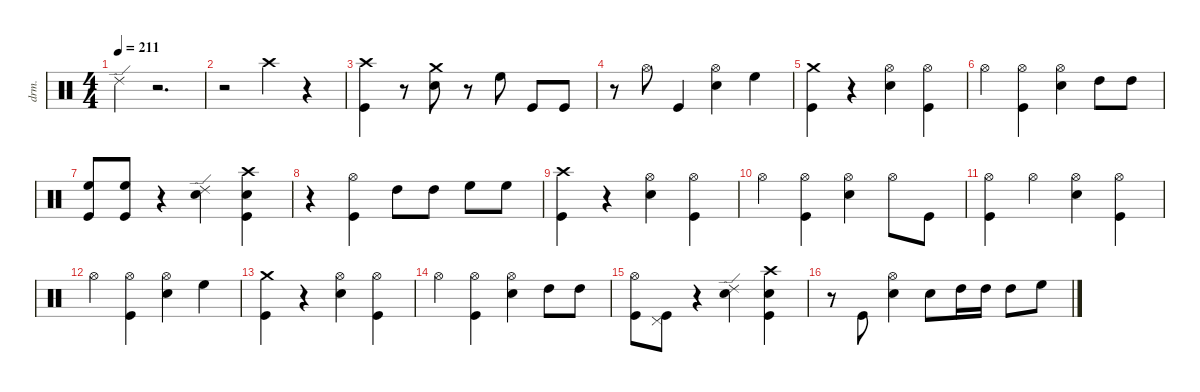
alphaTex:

\defaultSystemsLayout 4
\hideDynamics
\bracketExtendMode nobrackets
\track ("Drums" "drm.") {instrument percussion}
\staff {score}
\articulation defaults
\ts (4 4)
\tempo 211
\clef neutral
\ks c "Ride (edge) 2".4{dy ff beam Down}
r.2{d beam Down} |
r.2{beam Down} "Crash high (hit)"{acc #}.4{dy fff beam Down} r.4{beam Down} |
("Kick (hit)" "Crash high (hit)"{acc #}).4{beam Down} r.8{beam Down} ("Snare (hit) 2" "Crash medium (hit)").8{dy ff beam Down} r.8{beam Down} "High Floor Tom (hit)".8{beam Down} "Kick (hit)".8{dy mf beam Up} "Kick (hit)".8{dy fff beam Up} |
r.8{beam Down} "Hi-Hat (open)"{acc #}.8{dy ff beam Down} "Kick (hit)".4{beam Up} ("Snare (hit) 2" "Hi-Hat (open)"{acc #}).4{beam Down} "High Floor Tom (hit)".4{beam Down} |
("Kick (hit)" "Crash medium (hit)").4{dy fff beam Down} r.4{beam Down} ("Snare (hit) 2" "Hi-Hat (open)"{acc #}).4{dy ff beam Down} ("Kick (hit)" "Hi-Hat (open)"{acc #}).4{beam Down} |
"Hi-Hat (open)"{acc #}.4{dy fff beam Down} ("Kick (hit)" "Hi-Hat (open)"{acc #}).4{dy ff beam Down} ("Snare (hit) 2" "Hi-Hat (open)"{acc #}).4{beam Down} "High Tom (hit)".8{beam Down} "High Tom (hit)".8{dy mf beam Down} |
("Kick (hit)" "High Floor Tom (hit)").8{dy ff beam Up} ("Kick (hit)" "High Floor Tom (hit)").8{dy fff beam Up} r.4{beam Down} ("Snare (hit) 2" "Ride (edge) 2").4{dy f beam Down} ("Kick (hit)" "Snare (hit) 2" "Crash high (hit)"{acc #}).4{dy ff beam Down} |
r.4{beam Down} ("Kick (hit)" "Hi-Hat (open)"{acc #}).4{dy fff beam Down} "High Tom (hit)".8{dy ff beam Down} "High Tom (hit)".8{dy mf beam Down} "High Floor Tom (hit)".8{dy f beam Down} "High Floor Tom (hit)".8{dy mf beam Down} |
("Kick (hit)" "Crash high (hit)"{acc #}).4{dy fff beam Down} r.4{beam Down} ("Snare (hit) 2" "Hi-Hat (open)"{acc #}).4{dy ff beam Down} ("Kick (hit)" "Hi-Hat (open)"{acc #}).4{beam Down} |
"Hi-Hat (open)"{acc #}.4{dy fff beam Down} ("Kick (hit)" "Hi-Hat (open)"{acc #}).4{dy ff beam Down} ("Snare (hit) 2" "Hi-Hat (open)"{acc #}).4{beam Down} "Hi-Hat (open)"{acc #}.8{dy mf beam Down} "Kick (hit)".8{beam Down} |
("Kick (hit)" "Hi-Hat (open)"{acc #}).4{dy fff beam Down} "Hi-Hat (open)"{acc #}.4{dy mf beam Down} ("Snare (hit) 2" "Hi-Hat (open)"{acc #}).4{dy ff beam Down} ("Kick (hit)" "Hi-Hat (open)"{acc #}).4{beam Down} |
"Hi-Hat (open)"{acc #}.4{dy fff beam Down} ("Kick (hit)" "Hi-Hat (open)"{acc #}).4{dy ff beam Down} ("Snare (hit) 2" "Hi-Hat (open)"{acc #}).4{beam Down} "High Floor Tom (hit)".4{beam Down} |
("Kick (hit)" "Crash medium (hit)").4{dy fff beam Down} r.4{beam Down} ("Snare (hit) 2" "Hi-Hat (open)"{acc #}).4{dy ff beam Down} ("Kick (hit)" "Hi-Hat (open)"{acc #}).4{beam Down} |
"Hi-Hat (open)"{acc #}.4{dy fff beam Down} ("Kick (hit)" "Hi-Hat (open)"{acc #}).4{dy ff beam Down} ("Snare (hit) 2" "Hi-Hat (open)"{acc #}).4{beam Down} "High Tom (hit)".8{beam Down} "High Tom (hit)".8{dy mf beam Down} |
("Kick (hit)" "Hi-Hat (open)"{acc #}).8{dy ff beam Down} ("Kick (hit)" "Pedal Hi-Hat (hit)"{acc #}).8{dy fff beam Down} r.4{beam Down} ("Snare (hit) 2" "Ride (edge) 2").4{dy f beam Down} ("Kick (hit)" "Snare (hit) 2" "Crash high (hit)"{acc #}).4{dy ff beam Down} |
r.8{beam Down} "Kick (hit)".8{dy mf beam Up} ("Snare (hit) 2" "Hi-Hat (open)"{acc #}).4{dy fff beam Down} "Snare (hit) 2".8{beam Down} "High Tom (hit)".16{dy ff beam Down} "High Tom (hit)".16{dy pp beam Down} "High Tom (hit)".8{dy f beam Down} "High Floor Tom (hit)".8{dy mp beam Down}
